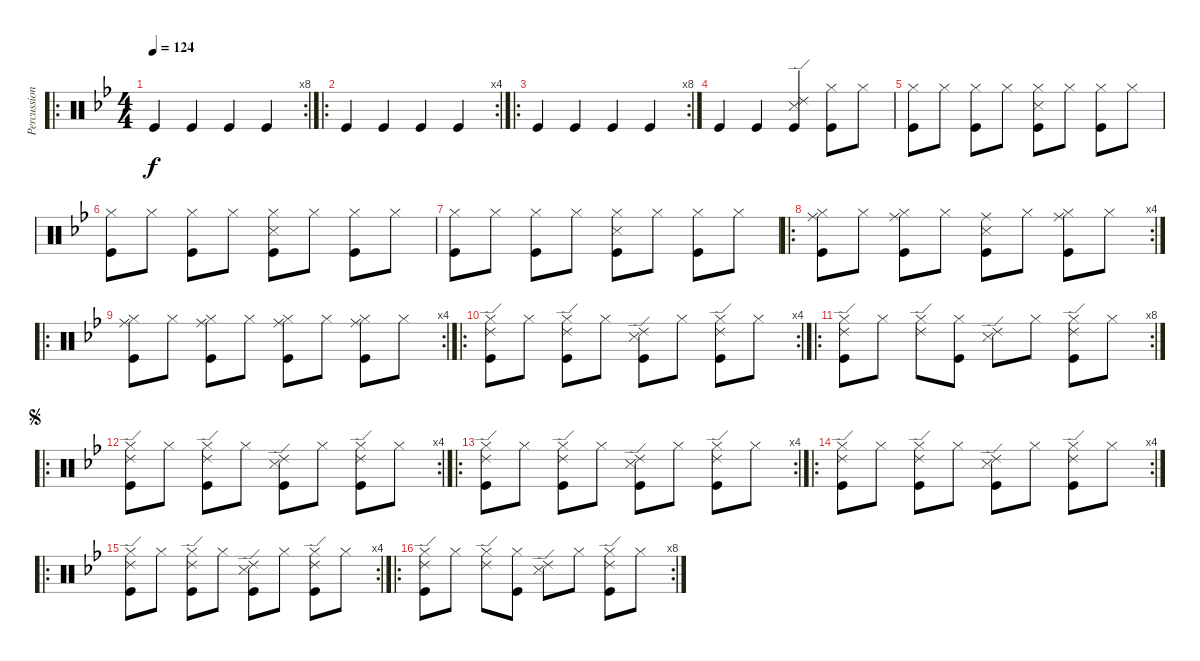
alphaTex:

\track ("Percussion" "Percussion") {instrument percussion}
\staff {score}
\articulation defaults
\ro
\rc 8
\ts (4 4)
\tempo 124
\clef neutral
\ks gminor "Kick (hit)".4{dy f} "Kick (hit)".4 "Kick (hit)".4 "Kick (hit)".4
|
\ro
\rc 4 "Kick (hit)".4 "Kick (hit)".4 "Kick (hit)".4 "Kick (hit)".4
|
\ro
\rc 8 "Kick (hit)".4 "Kick (hit)".4 "Kick (hit)".4 "Kick (hit)".4
|
"Kick (hit)".4 "Kick (hit)".4 ("Ride (edge) 2" "Snare (side stick) 3" "Kick (hit)").4 ("Hi-Hat (closed)" "Kick (hit)").8 "Hi-Hat (closed)".8 |
("Hi-Hat (closed)" "Kick (hit)").8 "Hi-Hat (closed)".8 ("Hi-Hat (closed)" "Kick (hit)").8 "Hi-Hat (closed)".8 ("Hi-Hat (closed)" "Snare (side stick) 3" "Kick (hit)").8 "Hi-Hat (closed)".8 ("Hi-Hat (closed)" "Kick (hit)").8 "Hi-Hat (closed)".8 |
("Hi-Hat (closed)" "Kick (hit)").8 "Hi-Hat (closed)".8 ("Hi-Hat (closed)" "Kick (hit)").8 "Hi-Hat (closed)".8 ("Hi-Hat (closed)" "Snare (side stick) 3" "Kick (hit)").8 "Hi-Hat (closed)".8 ("Hi-Hat (closed)" "Kick (hit)").8 "Hi-Hat (closed)".8 |
("Hi-Hat (closed)" "Kick (hit)").8 "Hi-Hat (closed)".8 ("Hi-Hat (closed)" "Kick (hit)").8 "Hi-Hat (closed)".8 ("Hi-Hat (closed)" "Snare (side stick) 3" "Kick (hit)").8 "Hi-Hat (closed)".8 ("Hi-Hat (closed)" "Kick (hit)").8 "Hi-Hat (closed)".8 |
\ro
\rc 4
("Ride (middle)" "Hi-Hat (closed)" "Kick (hit)").8 "Hi-Hat (closed)".8 ("Ride (middle)" "Hi-Hat (closed)" "Kick (hit)").8 "Hi-Hat (closed)".8 ("Ride (middle)" "Snare (side stick) 3" "Kick (hit)").8 "Hi-Hat (closed)".8 ("Ride (middle)" "Hi-Hat (closed)" "Kick (hit)").8 "Hi-Hat (closed)".8 |
\ro
\rc 4
("Ride (middle)" "Hi-Hat (closed)" "Kick (hit)").8 "Hi-Hat (closed)".8 ("Ride (middle)" "Hi-Hat (closed)" "Kick (hit)").8 "Hi-Hat (closed)".8 ("Ride (middle)" "Hi-Hat (closed)" "Kick (hit)").8 "Hi-Hat (closed)".8 ("Ride (middle)" "Hi-Hat (closed)" "Kick (hit)").8 "Hi-Hat (closed)".8 |
\ro
\rc 4
("Ride (edge) 2" "Hi-Hat (closed)" "Kick (hit)").8 "Hi-Hat (closed)".8 ("Ride (edge) 2" "Hi-Hat (closed)" "Kick (hit)").8 "Hi-Hat (closed)".8 ("Ride (edge) 2" "Snare (side stick) 3" "Kick (hit)").8 "Hi-Hat (closed)".8 ("Ride (edge) 2" "Hi-Hat (closed)" "Kick (hit)").8 "Hi-Hat (closed)".8 |
\ro
\rc 8
("Ride (edge) 2" "Hi-Hat (closed)" "Kick (hit)").8 "Hi-Hat (closed)".8 ("Ride (edge) 2" "Hi-Hat (closed)").8 ("Hi-Hat (closed)" "Kick (hit)").8 ("Ride (edge) 2" "Snare (side stick) 3").8 "Hi-Hat (closed)".8 ("Ride (edge) 2" "Hi-Hat (closed)" "Kick (hit)").8 "Hi-Hat (closed)".8 |
\ro
\rc 4
\jump segno
("Ride (edge) 2" "Hi-Hat (closed)" "Kick (hit)").8 "Hi-Hat (closed)".8 ("Ride (edge) 2" "Hi-Hat (closed)" "Kick (hit)").8 "Hi-Hat (closed)".8 ("Ride (edge) 2" "Snare (side stick) 3" "Kick (hit)").8 "Hi-Hat (closed)".8 ("Ride (edge) 2" "Hi-Hat (closed)" "Kick (hit)").8 "Hi-Hat (closed)".8 |
\ro
\rc 4
("Ride (edge) 2" "Hi-Hat (closed)" "Kick (hit)").8 "Hi-Hat (closed)".8 ("Ride (edge) 2" "Hi-Hat (closed)" "Kick (hit)").8 "Hi-Hat (closed)".8 ("Ride (edge) 2" "Snare (side stick) 3" "Kick (hit)").8 "Hi-Hat (closed)".8 ("Ride (edge) 2" "Hi-Hat (closed)" "Kick (hit)").8 "Hi-Hat (closed)".8 |
\ro
\rc 4
("Ride (edge) 2" "Hi-Hat (closed)" "Kick (hit)").8 "Hi-Hat (closed)".8 ("Ride (edge) 2" "Hi-Hat (closed)" "Kick (hit)").8 "Hi-Hat (closed)".8 ("Ride (edge) 2" "Snare (side stick) 3" "Kick (hit)").8 "Hi-Hat (closed)".8 ("Ride (edge) 2" "Hi-Hat (closed)" "Kick (hit)").8 "Hi-Hat (closed)".8 |
\ro
\rc 4
("Ride (edge) 2" "Hi-Hat (closed)" "Kick (hit)").8 "Hi-Hat (closed)".8 ("Ride (edge) 2" "Hi-Hat (closed)" "Kick (hit)").8 "Hi-Hat (closed)".8 ("Ride (edge) 2" "Snare (side stick) 3" "Kick (hit)").8 "Hi-Hat (closed)".8 ("Ride (edge) 2" "Hi-Hat (closed)" "Kick (hit)").8 "Hi-Hat (closed)".8 |
\ro
\rc 8
("Ride (edge) 2" "Hi-Hat (closed)" "Kick (hit)").8 "Hi-Hat (closed)".8 ("Ride (edge) 2" "Hi-Hat (closed)").8 ("Hi-Hat (closed)" "Kick (hit)").8 ("Ride (edge) 2" "Snare (side stick) 3").8 "Hi-Hat (closed)".8 ("Ride (edge) 2" "Hi-Hat (closed)" "Kick (hit)").8 "Hi-Hat (closed)".8
